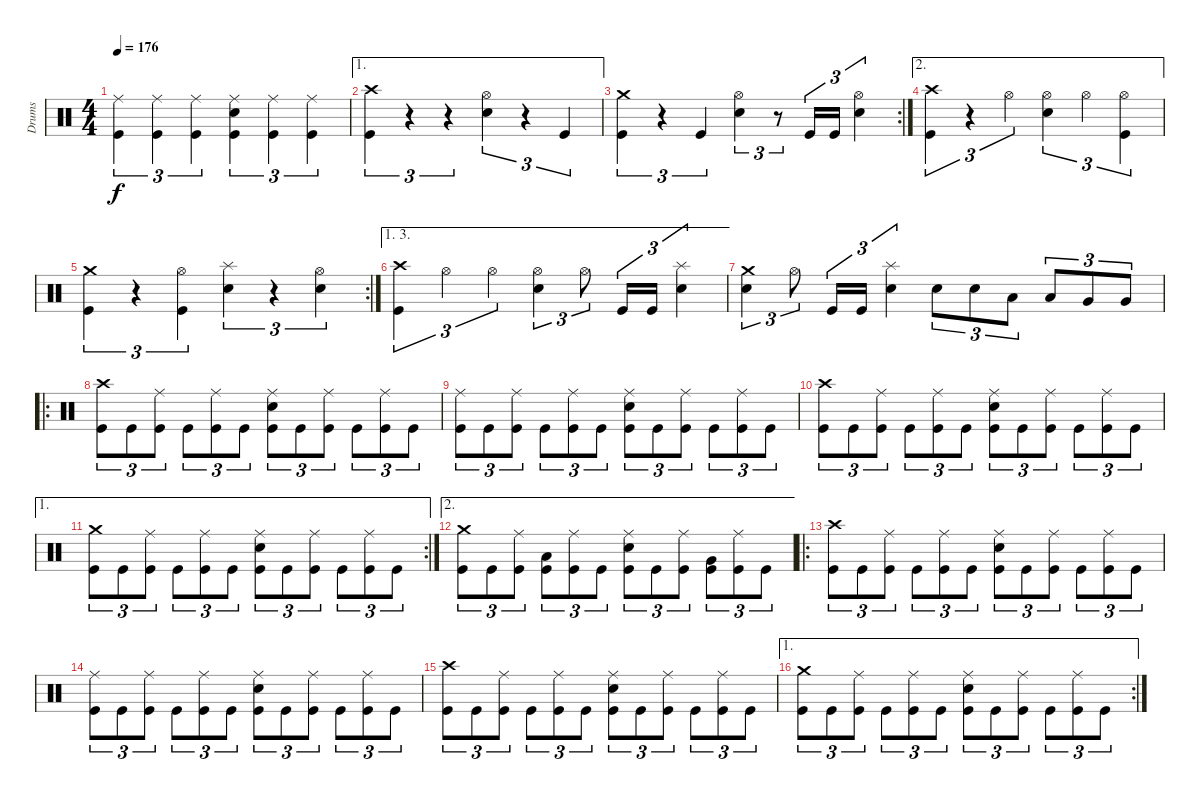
\track ("Drums" "Drums") {instrument percussion}
\staff {score}
\articulation defaults
\ts (4 4)
\tempo 176
\clef neutral
\ks c
("Ride (middle)" "Kick (hit)").4{tu (3 2) dy f} ("Ride (middle)" "Kick (hit)").4{tu (3 2)} ("Ride (middle)" "Kick (hit)").4{tu (3 2)} ("Ride (middle)" "Electric Snare (hit)" "Kick (hit)").4{tu (3 2)} ("Ride (middle)" "Kick (hit)").4{tu (3 2)} ("Ride (middle)" "Kick (hit)").4{tu (3 2)} |
\ae 1
("Crash high (hit)" "Kick (hit)").4{tu (3 2)} r.4{tu (3 2)} r.4{tu (3 2)} ("Hi-Hat (open)" "Electric Snare (hit)").4{tu (3 2)} r.4{tu (3 2)} "Kick (hit)".4{tu (3 2)} |
\rc 2
("Crash medium (hit)" "Kick (hit)").4{tu (3 2)} r.4{tu (3 2)} "Kick (hit)".4{tu (3 2)} ("Hi-Hat (open)" "Electric Snare (hit)").4{tu (3 2)} r.8{tu (3 2)} "Kick (hit)".16{tu (3 2)} "Kick (hit)".16{tu (3 2)} ("Hi-Hat (open)" "Electric Snare (hit)").4{tu (3 2)} |
\ae 2
("Crash high (hit)" "Kick (hit)").4{tu (3 2)} r.4{tu (3 2)} "Hi-Hat (open)".4{tu (3 2)} ("Hi-Hat (open)" "Electric Snare (hit)").4{tu (3 2)} "Hi-Hat (open)".4{tu (3 2)} ("Hi-Hat (open)" "Kick (hit)").4{tu (3 2)} |
\rc 2
("Crash medium (hit)" "Kick (hit)").4{tu (3 2)} r.4{tu (3 2)} ("Hi-Hat (open)" "Kick (hit)").4{tu (3 2)} ("Splash (hit)" "Electric Snare (hit)").4{tu (3 2)} r.4{tu (3 2)} ("Hi-Hat (open)" "Electric Snare (hit)").4{tu (3 2)} |
\ae (1 3)
("Crash high (hit)" "Kick (hit)").4{tu (3 2)} "Hi-Hat (open)".4{tu (3 2)} "Hi-Hat (open)".4{tu (3 2)} ("Hi-Hat (open)" "Electric Snare (hit)").4{tu (3 2)} "Hi-Hat (open)".8{tu (3 2)} "Kick (hit)".16{tu (3 2)} "Kick (hit)".16{tu (3 2)} ("Splash (hit)" "Electric Snare (hit)").4{tu (3 2)} |
("Crash medium (hit)" "Electric Snare (hit)").4{tu (3 2)} "Hi-Hat (open)".8{tu (3 2)} "Kick (hit)".16{tu (3 2)} "Kick (hit)".16{tu (3 2)} ("Splash (hit)" "Electric Snare (hit)").4{tu (3 2)} "Electric Snare (hit)".8{tu (3 2)} "Electric Snare (hit)".8{tu (3 2)} "Low Tom (hit)".8{tu (3 2)} "Low Tom (hit)".8{tu (3 2)} "Very Low Tom (hit)".8{tu (3 2)} "Very Low Tom (hit)".8{tu (3 2)} |
\ro
("Crash high (hit)" "Kick (hit)").8{tu (3 2)} "Kick (hit)".8{tu (3 2)} ("Ride (middle)" "Kick (hit)").8{tu (3 2)} "Kick (hit)".8{tu (3 2)} ("Ride (middle)" "Kick (hit)").8{tu (3 2)} "Kick (hit)".8{tu (3 2)} ("Ride (middle)" "Electric Snare (hit)" "Kick (hit)").8{tu (3 2)} "Kick (hit)".8{tu (3 2)} ("Ride (middle)" "Kick (hit)").8{tu (3 2)} "Kick (hit)".8{tu (3 2)} ("Ride (middle)" "Kick (hit)").8{tu (3 2)} "Kick (hit)".8{tu (3 2)} |
("Ride (middle)" "Kick (hit)").8{tu (3 2)} "Kick (hit)".8{tu (3 2)} ("Ride (middle)" "Kick (hit)").8{tu (3 2)} "Kick (hit)".8{tu (3 2)} ("Ride (middle)" "Kick (hit)").8{tu (3 2)} "Kick (hit)".8{tu (3 2)} ("Ride (middle)" "Electric Snare (hit)" "Kick (hit)").8{tu (3 2)} "Kick (hit)".8{tu (3 2)} ("Ride (middle)" "Kick (hit)").8{tu (3 2)} "Kick (hit)".8{tu (3 2)} ("Ride (middle)" "Kick (hit)").8{tu (3 2)} "Kick (hit)".8{tu (3 2)} |
("Crash high (hit)" "Kick (hit)").8{tu (3 2)} "Kick (hit)".8{tu (3 2)} ("Ride (middle)" "Kick (hit)").8{tu (3 2)} "Kick (hit)".8{tu (3 2)} ("Ride (middle)" "Kick (hit)").8{tu (3 2)} "Kick (hit)".8{tu (3 2)} ("Ride (middle)" "Electric Snare (hit)" "Kick (hit)").8{tu (3 2)} "Kick (hit)".8{tu (3 2)} ("Ride (middle)" "Kick (hit)").8{tu (3 2)} "Kick (hit)".8{tu (3 2)} ("Ride (middle)" "Kick (hit)").8{tu (3 2)} "Kick (hit)".8{tu (3 2)} |
\ae 1
\rc 2
("Crash medium (hit)" "Kick (hit)").8{tu (3 2)} "Kick (hit)".8{tu (3 2)} ("Ride (middle)" "Kick (hit)").8{tu (3 2)} "Kick (hit)".8{tu (3 2)} ("Ride (middle)" "Kick (hit)").8{tu (3 2)} "Kick (hit)".8{tu (3 2)} ("Ride (middle)" "Electric Snare (hit)" "Kick (hit)").8{tu (3 2)} "Kick (hit)".8{tu (3 2)} ("Ride (middle)" "Kick (hit)").8{tu (3 2)} "Kick (hit)".8{tu (3 2)} ("Ride (middle)" "Kick (hit)").8{tu (3 2)} "Kick (hit)".8{tu (3 2)} |
\ae 2
("Crash medium (hit)" "Kick (hit)").8{tu (3 2)} "Kick (hit)".8{tu (3 2)} ("Ride (middle)" "Kick (hit)").8{tu (3 2)} ("Low Tom (hit)" "Kick (hit)").8{tu (3 2)} ("Ride (middle)" "Kick (hit)").8{tu (3 2)} "Kick (hit)".8{tu (3 2)} ("Ride (middle)" "Electric Snare (hit)" "Kick (hit)").8{tu (3 2)} "Kick (hit)".8{tu (3 2)} ("Ride (middle)" "Kick (hit)").8{tu (3 2)} ("Very Low Tom (hit)" "Kick (hit)").8{tu (3 2)} ("Ride (middle)" "Kick (hit)").8{tu (3 2)} "Kick (hit)".8{tu (3 2)} |
\ro
("Crash high (hit)" "Kick (hit)").8{tu (3 2)} "Kick (hit)".8{tu (3 2)} ("Ride (middle)" "Kick (hit)").8{tu (3 2)} "Kick (hit)".8{tu (3 2)} ("Ride (middle)" "Kick (hit)").8{tu (3 2)} "Kick (hit)".8{tu (3 2)} ("Ride (middle)" "Electric Snare (hit)" "Kick (hit)").8{tu (3 2)} "Kick (hit)".8{tu (3 2)} ("Ride (middle)" "Kick (hit)").8{tu (3 2)} "Kick (hit)".8{tu (3 2)} ("Ride (middle)" "Kick (hit)").8{tu (3 2)} "Kick (hit)".8{tu (3 2)} |
("Ride (middle)" "Kick (hit)").8{tu (3 2)} "Kick (hit)".8{tu (3 2)} ("Ride (middle)" "Kick (hit)").8{tu (3 2)} "Kick (hit)".8{tu (3 2)} ("Ride (middle)" "Kick (hit)").8{tu (3 2)} "Kick (hit)".8{tu (3 2)} ("Ride (middle)" "Electric Snare (hit)" "Kick (hit)").8{tu (3 2)} "Kick (hit)".8{tu (3 2)} ("Ride (middle)" "Kick (hit)").8{tu (3 2)} "Kick (hit)".8{tu (3 2)} ("Ride (middle)" "Kick (hit)").8{tu (3 2)} "Kick (hit)".8{tu (3 2)} |
("Crash high (hit)" "Kick (hit)").8{tu (3 2)} "Kick (hit)".8{tu (3 2)} ("Ride (middle)" "Kick (hit)").8{tu (3 2)} "Kick (hit)".8{tu (3 2)} ("Ride (middle)" "Kick (hit)").8{tu (3 2)} "Kick (hit)".8{tu (3 2)} ("Ride (middle)" "Electric Snare (hit)" "Kick (hit)").8{tu (3 2)} "Kick (hit)".8{tu (3 2)} ("Ride (middle)" "Kick (hit)").8{tu (3 2)} "Kick (hit)".8{tu (3 2)} ("Ride (middle)" "Kick (hit)").8{tu (3 2)} "Kick (hit)".8{tu (3 2)} |
\ae 1
\rc 2
("Crash medium (hit)" "Kick (hit)").8{tu (3 2)} "Kick (hit)".8{tu (3 2)} ("Ride (middle)" "Kick (hit)").8{tu (3 2)} "Kick (hit)".8{tu (3 2)} ("Ride (middle)" "Kick (hit)").8{tu (3 2)} "Kick (hit)".8{tu (3 2)} ("Ride (middle)" "Electric Snare (hit)" "Kick (hit)").8{tu (3 2)} "Kick (hit)".8{tu (3 2)} ("Ride (middle)" "Kick (hit)").8{tu (3 2)} "Kick (hit)".8{tu (3 2)} ("Ride (middle)" "Kick (hit)").8{tu (3 2)} "Kick (hit)".8{tu (3 2)}
